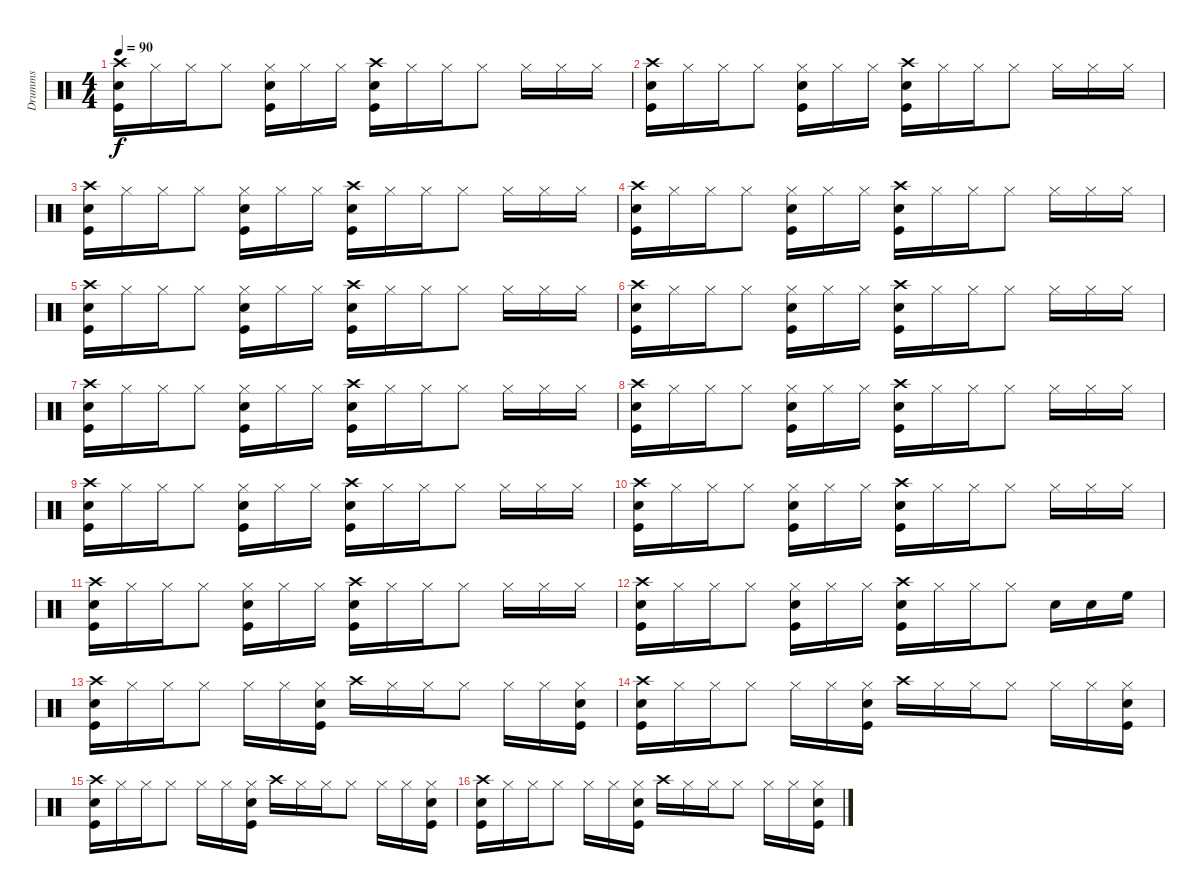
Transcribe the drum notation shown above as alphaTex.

\track ("Drumms" "Drumms") {instrument percussion}
\staff {score}
\articulation defaults
\ts (4 4)
\tempo 90
\clef neutral
\ks c
("Crash high (hit)" "Snare (hit) 2" "Kick (hit)").16{dy f} "Hi-Hat (closed)".16 "Hi-Hat (closed)".16 "Hi-Hat (closed)".8 ("Hi-Hat (closed)" "Snare (hit) 2" "Kick (hit)").16 "Hi-Hat (closed)".16 "Hi-Hat (closed)".16 ("Crash high (hit)" "Snare (hit) 2" "Kick (hit)").16 "Hi-Hat (closed)".16 "Hi-Hat (closed)".16 "Hi-Hat (closed)".8 "Hi-Hat (closed)".16 "Hi-Hat (closed)".16 "Hi-Hat (closed)".16 |
("Crash high (hit)" "Snare (hit) 2" "Kick (hit)").16 "Hi-Hat (closed)".16 "Hi-Hat (closed)".16 "Hi-Hat (closed)".8 ("Hi-Hat (closed)" "Snare (hit) 2" "Kick (hit)").16 "Hi-Hat (closed)".16 "Hi-Hat (closed)".16 ("Crash high (hit)" "Snare (hit) 2" "Kick (hit)").16 "Hi-Hat (closed)".16 "Hi-Hat (closed)".16 "Hi-Hat (closed)".8 "Hi-Hat (closed)".16 "Hi-Hat (closed)".16 "Hi-Hat (closed)".16 |
("Crash high (hit)" "Snare (hit) 2" "Kick (hit)").16 "Hi-Hat (closed)".16 "Hi-Hat (closed)".16 "Hi-Hat (closed)".8 ("Hi-Hat (closed)" "Snare (hit) 2" "Kick (hit)").16 "Hi-Hat (closed)".16 "Hi-Hat (closed)".16 ("Crash high (hit)" "Snare (hit) 2" "Kick (hit)").16 "Hi-Hat (closed)".16 "Hi-Hat (closed)".16 "Hi-Hat (closed)".8 "Hi-Hat (closed)".16 "Hi-Hat (closed)".16 "Hi-Hat (closed)".16 |
("Crash high (hit)" "Snare (hit) 2" "Kick (hit)").16 "Hi-Hat (closed)".16 "Hi-Hat (closed)".16 "Hi-Hat (closed)".8 ("Hi-Hat (closed)" "Snare (hit) 2" "Kick (hit)").16 "Hi-Hat (closed)".16 "Hi-Hat (closed)".16 ("Crash high (hit)" "Snare (hit) 2" "Kick (hit)").16 "Hi-Hat (closed)".16 "Hi-Hat (closed)".16 "Hi-Hat (closed)".8 "Hi-Hat (closed)".16 "Hi-Hat (closed)".16 "Hi-Hat (closed)".16 |
("Crash high (hit)" "Snare (hit) 2" "Kick (hit)").16 "Hi-Hat (closed)".16 "Hi-Hat (closed)".16 "Hi-Hat (closed)".8 ("Hi-Hat (closed)" "Snare (hit) 2" "Kick (hit)").16 "Hi-Hat (closed)".16 "Hi-Hat (closed)".16 ("Crash high (hit)" "Snare (hit) 2" "Kick (hit)").16 "Hi-Hat (closed)".16 "Hi-Hat (closed)".16 "Hi-Hat (closed)".8 "Hi-Hat (closed)".16 "Hi-Hat (closed)".16 "Hi-Hat (closed)".16 |
("Crash high (hit)" "Snare (hit) 2" "Kick (hit)").16 "Hi-Hat (closed)".16 "Hi-Hat (closed)".16 "Hi-Hat (closed)".8 ("Hi-Hat (closed)" "Snare (hit) 2" "Kick (hit)").16 "Hi-Hat (closed)".16 "Hi-Hat (closed)".16 ("Crash high (hit)" "Snare (hit) 2" "Kick (hit)").16 "Hi-Hat (closed)".16 "Hi-Hat (closed)".16 "Hi-Hat (closed)".8 "Hi-Hat (closed)".16 "Hi-Hat (closed)".16 "Hi-Hat (closed)".16 |
("Crash high (hit)" "Snare (hit) 2" "Kick (hit)").16 "Hi-Hat (closed)".16 "Hi-Hat (closed)".16 "Hi-Hat (closed)".8 ("Hi-Hat (closed)" "Snare (hit) 2" "Kick (hit)").16 "Hi-Hat (closed)".16 "Hi-Hat (closed)".16 ("Crash high (hit)" "Snare (hit) 2" "Kick (hit)").16 "Hi-Hat (closed)".16 "Hi-Hat (closed)".16 "Hi-Hat (closed)".8 "Hi-Hat (closed)".16 "Hi-Hat (closed)".16 "Hi-Hat (closed)".16 |
("Crash high (hit)" "Snare (hit) 2" "Kick (hit)").16 "Hi-Hat (closed)".16 "Hi-Hat (closed)".16 "Hi-Hat (closed)".8 ("Hi-Hat (closed)" "Snare (hit) 2" "Kick (hit)").16 "Hi-Hat (closed)".16 "Hi-Hat (closed)".16 ("Crash high (hit)" "Snare (hit) 2" "Kick (hit)").16 "Hi-Hat (closed)".16 "Hi-Hat (closed)".16 "Hi-Hat (closed)".8 "Hi-Hat (closed)".16 "Hi-Hat (closed)".16 "Hi-Hat (closed)".16 |
("Crash high (hit)" "Snare (hit) 2" "Kick (hit)").16 "Hi-Hat (closed)".16 "Hi-Hat (closed)".16 "Hi-Hat (closed)".8 ("Hi-Hat (closed)" "Snare (hit) 2" "Kick (hit)").16 "Hi-Hat (closed)".16 "Hi-Hat (closed)".16 ("Crash high (hit)" "Snare (hit) 2" "Kick (hit)").16 "Hi-Hat (closed)".16 "Hi-Hat (closed)".16 "Hi-Hat (closed)".8 "Hi-Hat (closed)".16 "Hi-Hat (closed)".16 "Hi-Hat (closed)".16 |
("Crash high (hit)" "Snare (hit) 2" "Kick (hit)").16 "Hi-Hat (closed)".16 "Hi-Hat (closed)".16 "Hi-Hat (closed)".8 ("Hi-Hat (closed)" "Snare (hit) 2" "Kick (hit)").16 "Hi-Hat (closed)".16 "Hi-Hat (closed)".16 ("Crash high (hit)" "Snare (hit) 2" "Kick (hit)").16 "Hi-Hat (closed)".16 "Hi-Hat (closed)".16 "Hi-Hat (closed)".8 "Hi-Hat (closed)".16 "Hi-Hat (closed)".16 "Hi-Hat (closed)".16 |
("Crash high (hit)" "Snare (hit) 2" "Kick (hit)").16 "Hi-Hat (closed)".16 "Hi-Hat (closed)".16 "Hi-Hat (closed)".8 ("Hi-Hat (closed)" "Snare (hit) 2" "Kick (hit)").16 "Hi-Hat (closed)".16 "Hi-Hat (closed)".16 ("Crash high (hit)" "Snare (hit) 2" "Kick (hit)").16 "Hi-Hat (closed)".16 "Hi-Hat (closed)".16 "Hi-Hat (closed)".8 "Hi-Hat (closed)".16 "Hi-Hat (closed)".16 "Hi-Hat (closed)".16 |
("Crash high (hit)" "Snare (hit) 2" "Kick (hit)").16 "Hi-Hat (closed)".16 "Hi-Hat (closed)".16 "Hi-Hat (closed)".8 ("Hi-Hat (closed)" "Snare (hit) 2" "Kick (hit)").16 "Hi-Hat (closed)".16 "Hi-Hat (closed)".16 ("Crash high (hit)" "Snare (hit) 2" "Kick (hit)").16 "Hi-Hat (closed)".16 "Hi-Hat (closed)".16 "Hi-Hat (closed)".8 "Snare (hit) 2".16 "Snare (hit) 2".16 "High Floor Tom (hit)".16 |
("Crash high (hit)" "Snare (hit) 2" "Kick (hit)").16 "Hi-Hat (closed)".16 "Hi-Hat (closed)".16 "Hi-Hat (closed)".8 "Hi-Hat (closed)".16 "Hi-Hat (closed)".16 ("Hi-Hat (closed)" "Snare (hit) 2" "Kick (hit)").16 "Crash high (hit)".16 "Hi-Hat (closed)".16 "Hi-Hat (closed)".16 "Hi-Hat (closed)".8 "Hi-Hat (closed)".16 "Hi-Hat (closed)".16 ("Hi-Hat (closed)" "Snare (hit) 2" "Kick (hit)").16 |
("Crash high (hit)" "Snare (hit) 2" "Kick (hit)").16 "Hi-Hat (closed)".16 "Hi-Hat (closed)".16 "Hi-Hat (closed)".8 "Hi-Hat (closed)".16 "Hi-Hat (closed)".16 ("Hi-Hat (closed)" "Snare (hit) 2" "Kick (hit)").16 "Crash high (hit)".16 "Hi-Hat (closed)".16 "Hi-Hat (closed)".16 "Hi-Hat (closed)".8 "Hi-Hat (closed)".16 "Hi-Hat (closed)".16 ("Hi-Hat (closed)" "Snare (hit) 2" "Kick (hit)").16 |
("Crash high (hit)" "Snare (hit) 2" "Kick (hit)").16 "Hi-Hat (closed)".16 "Hi-Hat (closed)".16 "Hi-Hat (closed)".8 "Hi-Hat (closed)".16 "Hi-Hat (closed)".16 ("Hi-Hat (closed)" "Snare (hit) 2" "Kick (hit)").16 "Crash high (hit)".16 "Hi-Hat (closed)".16 "Hi-Hat (closed)".16 "Hi-Hat (closed)".8 "Hi-Hat (closed)".16 "Hi-Hat (closed)".16 ("Hi-Hat (closed)" "Snare (hit) 2" "Kick (hit)").16 |
("Crash high (hit)" "Snare (hit) 2" "Kick (hit)").16 "Hi-Hat (closed)".16 "Hi-Hat (closed)".16 "Hi-Hat (closed)".8 "Hi-Hat (closed)".16 "Hi-Hat (closed)".16 ("Hi-Hat (closed)" "Snare (hit) 2" "Kick (hit)").16 "Crash high (hit)".16 "Hi-Hat (closed)".16 "Hi-Hat (closed)".16 "Hi-Hat (closed)".8 "Hi-Hat (closed)".16 "Hi-Hat (closed)".16 ("Hi-Hat (closed)" "Snare (hit) 2" "Kick (hit)").16
